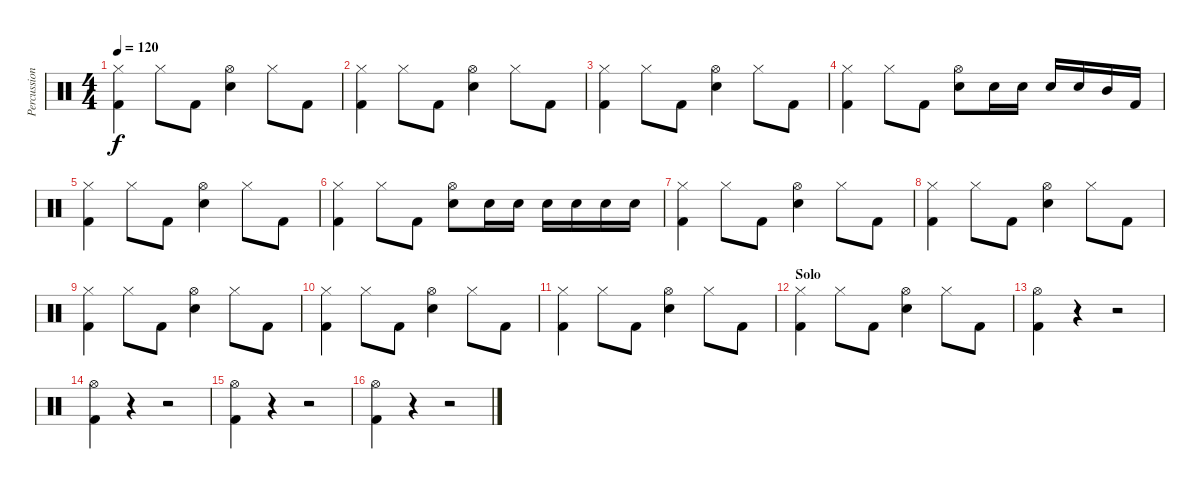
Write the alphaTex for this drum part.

\track ("Percussion" "Percussion") {instrument percussion}
\staff {score}
\articulation defaults
\ts (4 4)
\tempo 120
\clef neutral
\ks c
("Hi-Hat (closed)" "Kick (hit) 2").4{dy f} "Hi-Hat (closed)".8 "Kick (hit) 2".8 ("Hi-Hat (open)" "Snare (hit) 2").4 "Hi-Hat (closed)".8 "Kick (hit) 2".8 |
("Hi-Hat (closed)" "Kick (hit) 2").4 "Hi-Hat (closed)".8 "Kick (hit) 2".8 ("Hi-Hat (open)" "Snare (hit) 2").4 "Hi-Hat (closed)".8 "Kick (hit) 2".8 |
("Hi-Hat (closed)" "Kick (hit) 2").4 "Hi-Hat (closed)".8 "Kick (hit) 2".8 ("Hi-Hat (open)" "Snare (hit) 2").4 "Hi-Hat (closed)".8 "Kick (hit) 2".8 |
("Hi-Hat (closed)" "Kick (hit) 2").4 "Hi-Hat (closed)".8 "Kick (hit) 2".8 ("Hi-Hat (open)" "Snare (hit) 2").8 "Snare (hit) 2".16 "Snare (hit) 2".16 "Snare (hit) 2".16 "Snare (hit) 2".16 "Mid Tom (hit)".16 "Kick (hit) 2".16 |
("Hi-Hat (closed)" "Kick (hit) 2").4 "Hi-Hat (closed)".8 "Kick (hit) 2".8 ("Hi-Hat (open)" "Snare (hit) 2").4 "Hi-Hat (closed)".8 "Kick (hit) 2".8 |
("Hi-Hat (closed)" "Kick (hit) 2").4 "Hi-Hat (closed)".8 "Kick (hit) 2".8 ("Hi-Hat (open)" "Snare (hit) 2").8 "Snare (hit) 2".16 "Snare (hit) 2".16 "Snare (hit) 2".16 "Snare (hit) 2".16 "Snare (hit) 2".16 "Snare (hit) 2".16 |
("Hi-Hat (closed)" "Kick (hit) 2").4 "Hi-Hat (closed)".8 "Kick (hit) 2".8 ("Hi-Hat (open)" "Snare (hit) 2").4 "Hi-Hat (closed)".8 "Kick (hit) 2".8 |
("Hi-Hat (closed)" "Kick (hit) 2").4 "Hi-Hat (closed)".8 "Kick (hit) 2".8 ("Hi-Hat (open)" "Snare (hit) 2").4 "Hi-Hat (closed)".8 "Kick (hit) 2".8 |
("Hi-Hat (closed)" "Kick (hit) 2").4 "Hi-Hat (closed)".8 "Kick (hit) 2".8 ("Hi-Hat (open)" "Snare (hit) 2").4 "Hi-Hat (closed)".8 "Kick (hit) 2".8 |
("Hi-Hat (closed)" "Kick (hit) 2").4 "Hi-Hat (closed)".8 "Kick (hit) 2".8 ("Hi-Hat (open)" "Snare (hit) 2").4 "Hi-Hat (closed)".8 "Kick (hit) 2".8 |
("Hi-Hat (closed)" "Kick (hit) 2").4 "Hi-Hat (closed)".8 "Kick (hit) 2".8 ("Hi-Hat (open)" "Snare (hit) 2").4 "Hi-Hat (closed)".8 "Kick (hit) 2".8 |
\section ("" "Solo")
("Hi-Hat (closed)" "Kick (hit) 2").4 "Hi-Hat (closed)".8 "Kick (hit) 2".8 ("Hi-Hat (open)" "Snare (hit) 2").4 "Hi-Hat (closed)".8 "Kick (hit) 2".8 |
("Hi-Hat (open)" "Kick (hit) 2").4 r.4 r.2 |
("Hi-Hat (open)" "Kick (hit) 2").4 r.4 r.2 |
("Hi-Hat (open)" "Kick (hit) 2").4 r.4 r.2 |
("Hi-Hat (open)" "Kick (hit) 2").4 r.4 r.2
